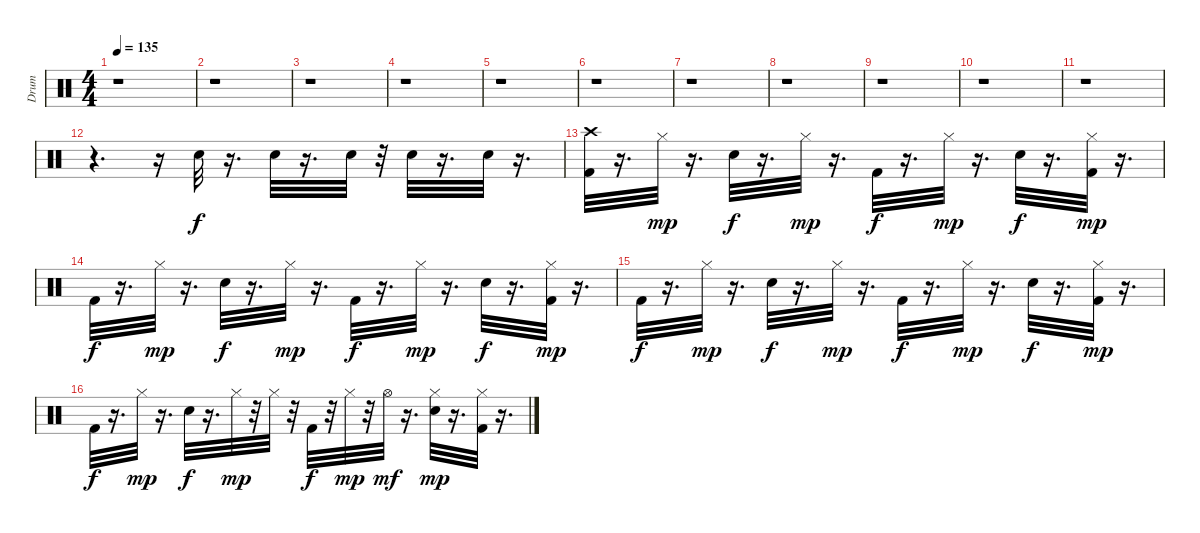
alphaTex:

\track ("Drum" "Drum") {instrument percussion}
\staff {score}
\articulation defaults
\ts (4 4)
\tempo 135
\clef neutral
\ks c
r.1{dy f} |
r.1 |
r.1 |
r.1 |
r.1 |
r.1 |
r.1 |
r.1 |
r.1 |
r.1 |
r.1 |
r.4{d} r.16 "Electric Snare (hit)".32 r.16{d} "Electric Snare (hit)".32 r.16{d} "Electric Snare (hit)".32 r.32 "Electric Snare (hit)".32 r.16{d} "Electric Snare (hit)".32 r.16{d} |
("Crash high (hit)" "Kick (hit) 2").32 r.16{d} "Hi-Hat (closed)".32{dy mp} r.16{d} "Electric Snare (hit)".32{dy f} r.16{d} "Hi-Hat (closed)".32{dy mp} r.16{d} "Kick (hit) 2".32{dy f} r.16{d} "Hi-Hat (closed)".32{dy mp} r.16{d} "Electric Snare (hit)".32{dy f} r.16{d} ("Hi-Hat (closed)" "Kick (hit) 2").32{dy mp} r.16{d} |
"Kick (hit) 2".32{dy f} r.16{d} "Hi-Hat (closed)".32{dy mp} r.16{d} "Electric Snare (hit)".32{dy f} r.16{d} "Hi-Hat (closed)".32{dy mp} r.16{d} "Kick (hit) 2".32{dy f} r.16{d} "Hi-Hat (closed)".32{dy mp} r.16{d} "Electric Snare (hit)".32{dy f} r.16{d} ("Hi-Hat (closed)" "Kick (hit) 2").32{dy mp} r.16{d} |
"Kick (hit) 2".32{dy f} r.16{d} "Hi-Hat (closed)".32{dy mp} r.16{d} "Electric Snare (hit)".32{dy f} r.16{d} "Hi-Hat (closed)".32{dy mp} r.16{d} "Kick (hit) 2".32{dy f} r.16{d} "Hi-Hat (closed)".32{dy mp} r.16{d} "Electric Snare (hit)".32{dy f} r.16{d} ("Hi-Hat (closed)" "Kick (hit) 2").32{dy mp} r.16{d} |
"Kick (hit) 2".32{dy f} r.16{d} "Hi-Hat (closed)".32{dy mp} r.16{d} "Electric Snare (hit)".32{dy f} r.16{d} "Hi-Hat (closed)".32{dy mp} r.32 "Hi-Hat (closed)".32 r.32 "Kick (hit) 2".32{dy f} r.32 "Hi-Hat (closed)".32{dy mp} r.32 "Hi-Hat (open)".32{dy mf} r.16{d} ("Hi-Hat (closed)" "Electric Snare (hit)").32{dy mp} r.16{d} ("Kick (hit) 2" "Hi-Hat (closed)").32 r.16{d}
